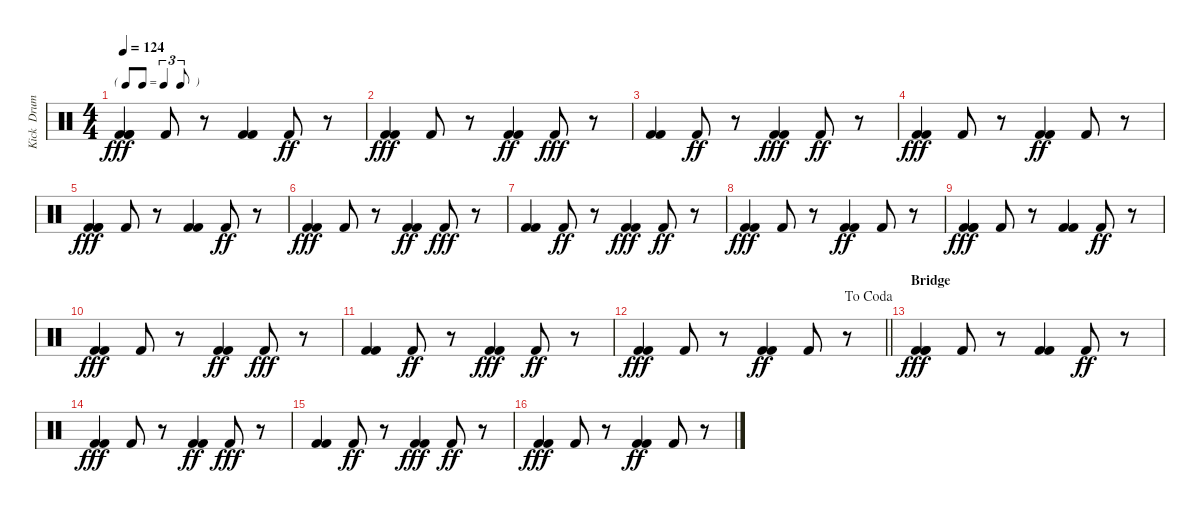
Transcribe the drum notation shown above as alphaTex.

\track ("Kick  Drum" "Kick  Drum") {instrument percussion}
\staff {score}
\articulation defaults
\ts (4 4)
\tf triplet8th
\tempo 124
\clef neutral
\ks c
("Kick (hit) 2" "Kick (hit) 2" "Kick (hit) 2").4{dy fff} "Kick (hit) 2".8 r.8 ("Kick (hit) 2" "Kick (hit) 2").4 "Kick (hit) 2".8{dy ff} r.8 |
("Kick (hit) 2" "Kick (hit) 2").4{dy fff} "Kick (hit) 2".8 r.8 ("Kick (hit) 2" "Kick (hit) 2").4{dy ff} "Kick (hit) 2".8{dy fff} r.8 |
("Kick (hit) 2" "Kick (hit) 2").4 "Kick (hit) 2".8{dy ff} r.8 ("Kick (hit) 2" "Kick (hit) 2").4{dy fff} "Kick (hit) 2".8{dy ff} r.8 |
("Kick (hit) 2" "Kick (hit) 2").4{dy fff} "Kick (hit) 2".8 r.8 ("Kick (hit) 2" "Kick (hit) 2").4{dy ff} "Kick (hit) 2".8 r.8 |
("Kick (hit) 2" "Kick (hit) 2" "Kick (hit) 2").4{dy fff} "Kick (hit) 2".8 r.8 ("Kick (hit) 2" "Kick (hit) 2").4 "Kick (hit) 2".8{dy ff} r.8 |
("Kick (hit) 2" "Kick (hit) 2").4{dy fff} "Kick (hit) 2".8 r.8 ("Kick (hit) 2" "Kick (hit) 2").4{dy ff} "Kick (hit) 2".8{dy fff} r.8 |
("Kick (hit) 2" "Kick (hit) 2").4 "Kick (hit) 2".8{dy ff} r.8 ("Kick (hit) 2" "Kick (hit) 2").4{dy fff} "Kick (hit) 2".8{dy ff} r.8 |
("Kick (hit) 2" "Kick (hit) 2").4{dy fff} "Kick (hit) 2".8 r.8 ("Kick (hit) 2" "Kick (hit) 2").4{dy ff} "Kick (hit) 2".8 r.8 |
("Kick (hit) 2" "Kick (hit) 2" "Kick (hit) 2").4{dy fff} "Kick (hit) 2".8 r.8 ("Kick (hit) 2" "Kick (hit) 2").4 "Kick (hit) 2".8{dy ff} r.8 |
("Kick (hit) 2" "Kick (hit) 2").4{dy fff} "Kick (hit) 2".8 r.8 ("Kick (hit) 2" "Kick (hit) 2").4{dy ff} "Kick (hit) 2".8{dy fff} r.8 |
("Kick (hit) 2" "Kick (hit) 2").4 "Kick (hit) 2".8{dy ff} r.8 ("Kick (hit) 2" "Kick (hit) 2").4{dy fff} "Kick (hit) 2".8{dy ff} r.8 |
\jump dacoda
\barLineRight lightlight
("Kick (hit) 2" "Kick (hit) 2").4{dy fff} "Kick (hit) 2".8 r.8 ("Kick (hit) 2" "Kick (hit) 2").4{dy ff} "Kick (hit) 2".8 r.8 |
\section ("" "Bridge")
("Kick (hit) 2" "Kick (hit) 2" "Kick (hit) 2").4{dy fff} "Kick (hit) 2".8 r.8 ("Kick (hit) 2" "Kick (hit) 2").4 "Kick (hit) 2".8{dy ff} r.8 |
("Kick (hit) 2" "Kick (hit) 2").4{dy fff} "Kick (hit) 2".8 r.8 ("Kick (hit) 2" "Kick (hit) 2").4{dy ff} "Kick (hit) 2".8{dy fff} r.8 |
("Kick (hit) 2" "Kick (hit) 2").4 "Kick (hit) 2".8{dy ff} r.8 ("Kick (hit) 2" "Kick (hit) 2").4{dy fff} "Kick (hit) 2".8{dy ff} r.8 |
("Kick (hit) 2" "Kick (hit) 2").4{dy fff} "Kick (hit) 2".8 r.8 ("Kick (hit) 2" "Kick (hit) 2").4{dy ff} "Kick (hit) 2".8 r.8
